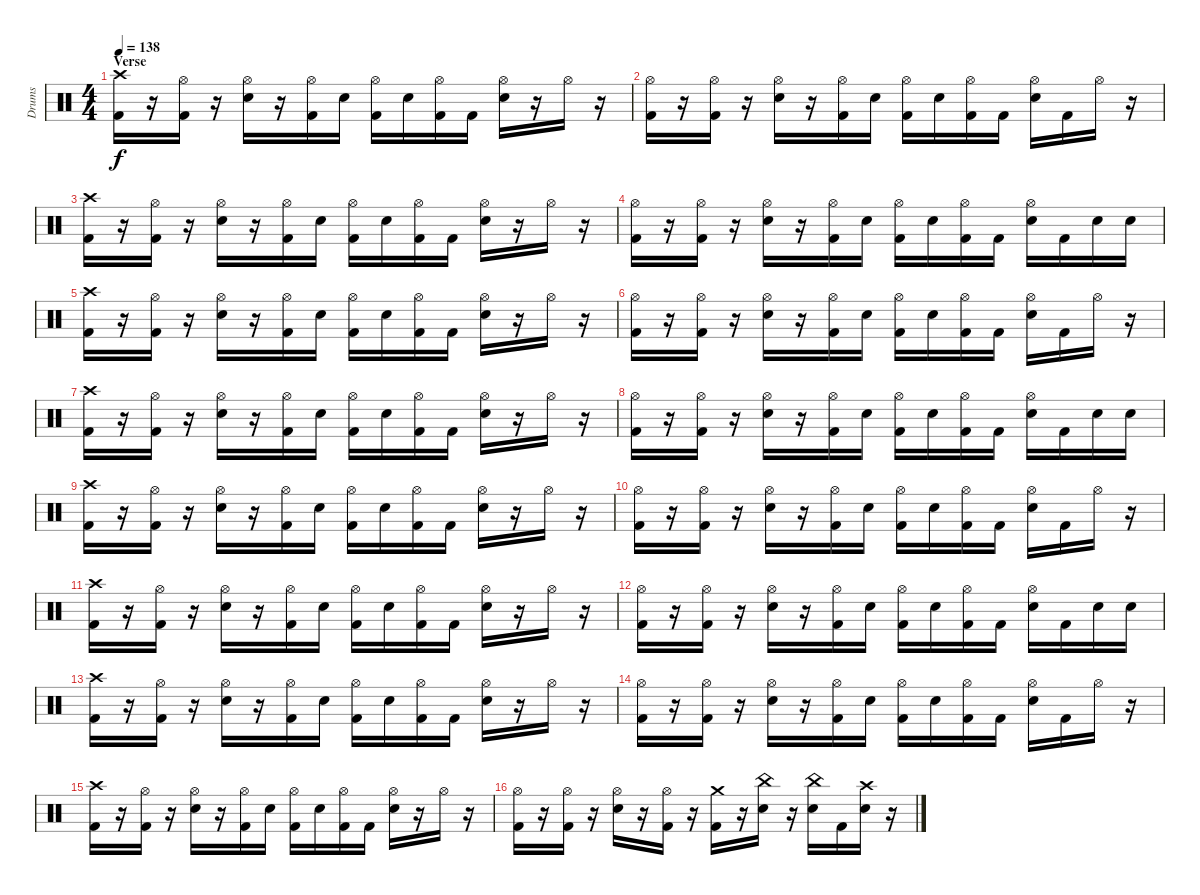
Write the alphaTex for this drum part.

\track ("Drums" "Drums") {instrument percussion}
\staff {score}
\articulation defaults
\ts (4 4)
\section ("" "Verse")
\tempo 138
\clef neutral
\ks c
("Crash high (hit)" "Kick (hit) 2").16{dy f} r.16 ("Hi-Hat (open)" "Kick (hit) 2").16 r.16 ("Hi-Hat (open)" "Snare (hit) 2").16 r.16 ("Hi-Hat (open)" "Kick (hit) 2").16 "Snare (hit) 2".16 ("Hi-Hat (open)" "Kick (hit) 2").16 "Snare (hit) 2".16 ("Hi-Hat (open)" "Kick (hit) 2").16 "Kick (hit) 2".16 ("Hi-Hat (open)" "Snare (hit) 2").16 r.16 "Hi-Hat (open)".16 r.16 |
("Hi-Hat (open)" "Kick (hit) 2").16 r.16 ("Hi-Hat (open)" "Kick (hit) 2").16 r.16 ("Hi-Hat (open)" "Snare (hit) 2").16 r.16 ("Hi-Hat (open)" "Kick (hit) 2").16 "Snare (hit) 2".16 ("Hi-Hat (open)" "Kick (hit) 2").16 "Snare (hit) 2".16 ("Hi-Hat (open)" "Kick (hit) 2").16 "Kick (hit) 2".16 ("Hi-Hat (open)" "Snare (hit) 2").16 "Kick (hit) 2".16 "Hi-Hat (open)".16 r.16 |
("Crash high (hit)" "Kick (hit) 2").16 r.16 ("Hi-Hat (open)" "Kick (hit) 2").16 r.16 ("Hi-Hat (open)" "Snare (hit) 2").16 r.16 ("Hi-Hat (open)" "Kick (hit) 2").16 "Snare (hit) 2".16 ("Hi-Hat (open)" "Kick (hit) 2").16 "Snare (hit) 2".16 ("Hi-Hat (open)" "Kick (hit) 2").16 "Kick (hit) 2".16 ("Hi-Hat (open)" "Snare (hit) 2").16 r.16 "Hi-Hat (open)".16 r.16 |
("Hi-Hat (open)" "Kick (hit) 2").16 r.16 ("Hi-Hat (open)" "Kick (hit) 2").16 r.16 ("Hi-Hat (open)" "Snare (hit) 2").16 r.16 ("Hi-Hat (open)" "Kick (hit) 2").16 "Snare (hit) 2".16 ("Hi-Hat (open)" "Kick (hit) 2").16 "Snare (hit) 2".16 ("Hi-Hat (open)" "Kick (hit) 2").16 "Kick (hit) 2".16 ("Hi-Hat (open)" "Snare (hit) 2").16 "Kick (hit) 2".16 "Snare (hit) 2".16 "Snare (hit) 2".16 |
("Crash high (hit)" "Kick (hit) 2").16 r.16 ("Hi-Hat (open)" "Kick (hit) 2").16 r.16 ("Hi-Hat (open)" "Snare (hit) 2").16 r.16 ("Hi-Hat (open)" "Kick (hit) 2").16 "Snare (hit) 2".16 ("Hi-Hat (open)" "Kick (hit) 2").16 "Snare (hit) 2".16 ("Hi-Hat (open)" "Kick (hit) 2").16 "Kick (hit) 2".16 ("Hi-Hat (open)" "Snare (hit) 2").16 r.16 "Hi-Hat (open)".16 r.16 |
("Hi-Hat (open)" "Kick (hit) 2").16 r.16 ("Hi-Hat (open)" "Kick (hit) 2").16 r.16 ("Hi-Hat (open)" "Snare (hit) 2").16 r.16 ("Hi-Hat (open)" "Kick (hit) 2").16 "Snare (hit) 2".16 ("Hi-Hat (open)" "Kick (hit) 2").16 "Snare (hit) 2".16 ("Hi-Hat (open)" "Kick (hit) 2").16 "Kick (hit) 2".16 ("Hi-Hat (open)" "Snare (hit) 2").16 "Kick (hit) 2".16 "Hi-Hat (open)".16 r.16 |
("Crash high (hit)" "Kick (hit) 2").16 r.16 ("Hi-Hat (open)" "Kick (hit) 2").16 r.16 ("Hi-Hat (open)" "Snare (hit) 2").16 r.16 ("Hi-Hat (open)" "Kick (hit) 2").16 "Snare (hit) 2".16 ("Hi-Hat (open)" "Kick (hit) 2").16 "Snare (hit) 2".16 ("Hi-Hat (open)" "Kick (hit) 2").16 "Kick (hit) 2".16 ("Hi-Hat (open)" "Snare (hit) 2").16 r.16 "Hi-Hat (open)".16 r.16 |
("Hi-Hat (open)" "Kick (hit) 2").16 r.16 ("Hi-Hat (open)" "Kick (hit) 2").16 r.16 ("Hi-Hat (open)" "Snare (hit) 2").16 r.16 ("Hi-Hat (open)" "Kick (hit) 2").16 "Snare (hit) 2".16 ("Hi-Hat (open)" "Kick (hit) 2").16 "Snare (hit) 2".16 ("Hi-Hat (open)" "Kick (hit) 2").16 "Kick (hit) 2".16 ("Hi-Hat (open)" "Snare (hit) 2").16 "Kick (hit) 2".16 "Snare (hit) 2".16 "Snare (hit) 2".16 |
("Crash high (hit)" "Kick (hit) 2").16 r.16 ("Hi-Hat (open)" "Kick (hit) 2").16 r.16 ("Hi-Hat (open)" "Snare (hit) 2").16 r.16 ("Hi-Hat (open)" "Kick (hit) 2").16 "Snare (hit) 2".16 ("Hi-Hat (open)" "Kick (hit) 2").16 "Snare (hit) 2".16 ("Hi-Hat (open)" "Kick (hit) 2").16 "Kick (hit) 2".16 ("Hi-Hat (open)" "Snare (hit) 2").16 r.16 "Hi-Hat (open)".16 r.16 |
("Hi-Hat (open)" "Kick (hit) 2").16 r.16 ("Hi-Hat (open)" "Kick (hit) 2").16 r.16 ("Hi-Hat (open)" "Snare (hit) 2").16 r.16 ("Hi-Hat (open)" "Kick (hit) 2").16 "Snare (hit) 2".16 ("Hi-Hat (open)" "Kick (hit) 2").16 "Snare (hit) 2".16 ("Hi-Hat (open)" "Kick (hit) 2").16 "Kick (hit) 2".16 ("Hi-Hat (open)" "Snare (hit) 2").16 "Kick (hit) 2".16 "Hi-Hat (open)".16 r.16 |
("Crash high (hit)" "Kick (hit) 2").16 r.16 ("Hi-Hat (open)" "Kick (hit) 2").16 r.16 ("Hi-Hat (open)" "Snare (hit) 2").16 r.16 ("Hi-Hat (open)" "Kick (hit) 2").16 "Snare (hit) 2".16 ("Hi-Hat (open)" "Kick (hit) 2").16 "Snare (hit) 2".16 ("Hi-Hat (open)" "Kick (hit) 2").16 "Kick (hit) 2".16 ("Hi-Hat (open)" "Snare (hit) 2").16 r.16 "Hi-Hat (open)".16 r.16 |
("Hi-Hat (open)" "Kick (hit) 2").16 r.16 ("Hi-Hat (open)" "Kick (hit) 2").16 r.16 ("Hi-Hat (open)" "Snare (hit) 2").16 r.16 ("Hi-Hat (open)" "Kick (hit) 2").16 "Snare (hit) 2".16 ("Hi-Hat (open)" "Kick (hit) 2").16 "Snare (hit) 2".16 ("Hi-Hat (open)" "Kick (hit) 2").16 "Kick (hit) 2".16 ("Hi-Hat (open)" "Snare (hit) 2").16 "Kick (hit) 2".16 "Snare (hit) 2".16 "Snare (hit) 2".16 |
("Crash high (hit)" "Kick (hit) 2").16 r.16 ("Hi-Hat (open)" "Kick (hit) 2").16 r.16 ("Hi-Hat (open)" "Snare (hit) 2").16 r.16 ("Hi-Hat (open)" "Kick (hit) 2").16 "Snare (hit) 2".16 ("Hi-Hat (open)" "Kick (hit) 2").16 "Snare (hit) 2".16 ("Hi-Hat (open)" "Kick (hit) 2").16 "Kick (hit) 2".16 ("Hi-Hat (open)" "Snare (hit) 2").16 r.16 "Hi-Hat (open)".16 r.16 |
("Hi-Hat (open)" "Kick (hit) 2").16 r.16 ("Hi-Hat (open)" "Kick (hit) 2").16 r.16 ("Hi-Hat (open)" "Snare (hit) 2").16 r.16 ("Hi-Hat (open)" "Kick (hit) 2").16 "Snare (hit) 2".16 ("Hi-Hat (open)" "Kick (hit) 2").16 "Snare (hit) 2".16 ("Hi-Hat (open)" "Kick (hit) 2").16 "Kick (hit) 2".16 ("Hi-Hat (open)" "Snare (hit) 2").16 "Kick (hit) 2".16 "Hi-Hat (open)".16 r.16 |
("Crash high (hit)" "Kick (hit) 2").16 r.16 ("Hi-Hat (open)" "Kick (hit) 2").16 r.16 ("Hi-Hat (open)" "Snare (hit) 2").16 r.16 ("Hi-Hat (open)" "Kick (hit) 2").16 "Snare (hit) 2".16 ("Hi-Hat (open)" "Kick (hit) 2").16 "Snare (hit) 2".16 ("Hi-Hat (open)" "Kick (hit) 2").16 "Kick (hit) 2".16 ("Hi-Hat (open)" "Snare (hit) 2").16 r.16 "Hi-Hat (open)".16 r.16 |
("Hi-Hat (open)" "Kick (hit) 2").16 r.16 ("Hi-Hat (open)" "Kick (hit) 2").16 r.16 ("Hi-Hat (open)" "Snare (hit) 2").16 r.16 ("Hi-Hat (open)" "Kick (hit) 2").16 r.16 ("Crash medium (hit)" "Kick (hit) 2").16 r.16 ("China (hit)" "Snare (hit) 2").16 r.16 ("China (hit)" "Snare (hit) 2").16 "Kick (hit) 2".16 ("Crash high (hit)" "Snare (hit) 2").16 r.16
